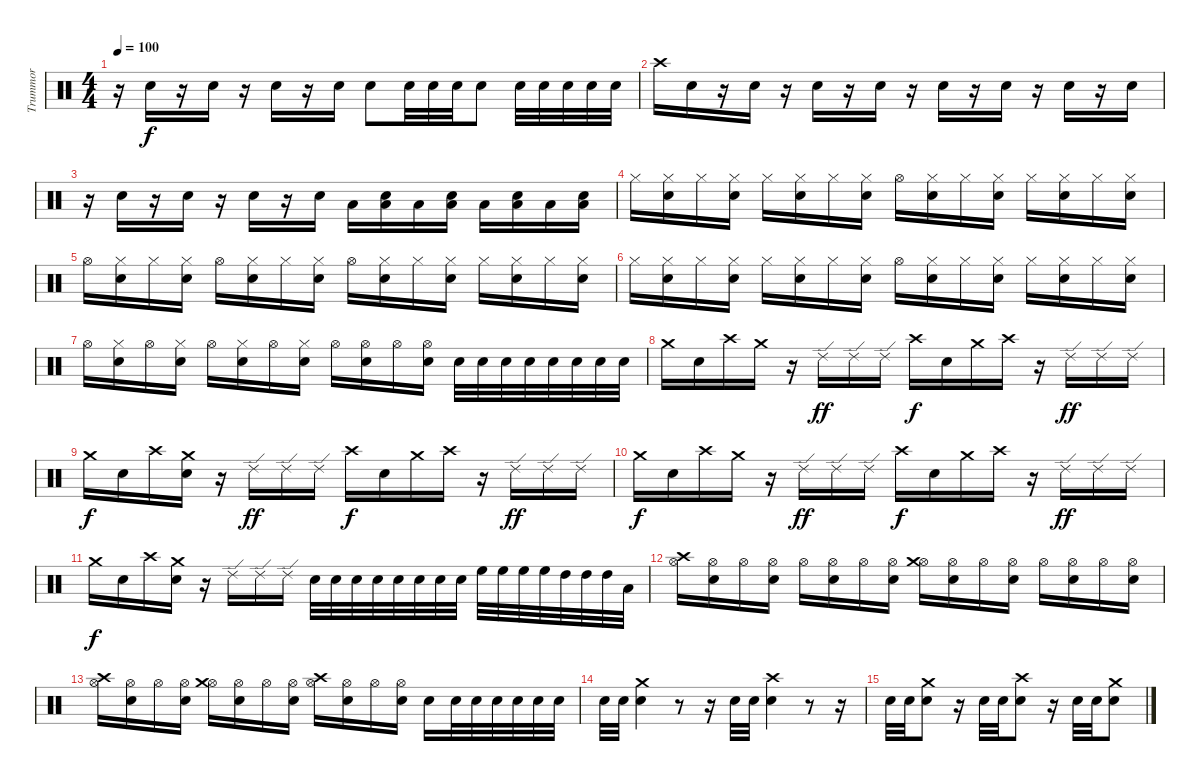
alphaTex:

\track ("Trummor" "Trummor") {instrument percussion}
\staff {score}
\articulation defaults
\ts (4 4)
\tempo 100
\clef neutral
\ks c
r.16{dy f} "Electric Snare (hit)".16 r.16 "Electric Snare (hit)".16 r.16 "Electric Snare (hit)".16 r.16 "Electric Snare (hit)".16 "Electric Snare (hit)".8 "Electric Snare (hit)".32 "Electric Snare (hit)".32 "Electric Snare (hit)".32 "Electric Snare (hit)".8 "Electric Snare (hit)".32 "Electric Snare (hit)".32 "Electric Snare (hit)".32 "Electric Snare (hit)".32 "Electric Snare (hit)".32 |
"Crash high (hit)".16 "Electric Snare (hit)".16 r.16 "Electric Snare (hit)".16 r.16 "Electric Snare (hit)".16 r.16 "Electric Snare (hit)".16 r.16 "Electric Snare (hit)".16 r.16 "Electric Snare (hit)".16 r.16 "Electric Snare (hit)".16 r.16 "Electric Snare (hit)".16 |
r.16 "Electric Snare (hit)".16 r.16 "Electric Snare (hit)".16 r.16 "Electric Snare (hit)".16 r.16 "Electric Snare (hit)".16 "Low Tom (hit)".16 ("Low Tom (hit)" "Electric Snare (hit)").16 "Low Tom (hit)".16 ("Low Tom (hit)" "Electric Snare (hit)").16 "Low Tom (hit)".16 ("Low Tom (hit)" "Electric Snare (hit)").16 "Low Tom (hit)".16 ("Low Tom (hit)" "Electric Snare (hit)").16 |
"Hi-Hat (closed)".16 ("Hi-Hat (closed)" "Electric Snare (hit)").16 "Hi-Hat (closed)".16 ("Hi-Hat (closed)" "Electric Snare (hit)").16 "Hi-Hat (closed)".16 ("Hi-Hat (closed)" "Electric Snare (hit)").16 "Hi-Hat (closed)".16 ("Hi-Hat (closed)" "Electric Snare (hit)").16 "Hi-Hat (open)".16 ("Hi-Hat (closed)" "Electric Snare (hit)").16 "Hi-Hat (closed)".16 ("Hi-Hat (closed)" "Electric Snare (hit)").16 "Hi-Hat (closed)".16 ("Hi-Hat (closed)" "Electric Snare (hit)").16 "Hi-Hat (closed)".16 ("Hi-Hat (closed)" "Electric Snare (hit)").16 |
"Hi-Hat (open)".16 ("Hi-Hat (closed)" "Electric Snare (hit)").16 "Hi-Hat (closed)".16 ("Hi-Hat (closed)" "Electric Snare (hit)").16 "Hi-Hat (open)".16 ("Hi-Hat (closed)" "Electric Snare (hit)").16 "Hi-Hat (closed)".16 ("Hi-Hat (closed)" "Electric Snare (hit)").16 "Hi-Hat (open)".16 ("Hi-Hat (closed)" "Electric Snare (hit)").16 "Hi-Hat (closed)".16 ("Hi-Hat (closed)" "Electric Snare (hit)").16 "Hi-Hat (closed)".16 ("Hi-Hat (closed)" "Electric Snare (hit)").16 "Hi-Hat (closed)".16 ("Hi-Hat (closed)" "Electric Snare (hit)").16 |
"Hi-Hat (closed)".16 ("Hi-Hat (closed)" "Electric Snare (hit)").16 "Hi-Hat (closed)".16 ("Hi-Hat (closed)" "Electric Snare (hit)").16 "Hi-Hat (closed)".16 ("Hi-Hat (closed)" "Electric Snare (hit)").16 "Hi-Hat (closed)".16 ("Hi-Hat (closed)" "Electric Snare (hit)").16 "Hi-Hat (open)".16 ("Hi-Hat (closed)" "Electric Snare (hit)").16 "Hi-Hat (closed)".16 ("Hi-Hat (closed)" "Electric Snare (hit)").16 "Hi-Hat (closed)".16 ("Hi-Hat (closed)" "Electric Snare (hit)").16 "Hi-Hat (closed)".16 ("Hi-Hat (closed)" "Electric Snare (hit)").16 |
"Hi-Hat (open)".16 ("Hi-Hat (closed)" "Electric Snare (hit)").16 "Hi-Hat (open)".16 ("Hi-Hat (closed)" "Electric Snare (hit)").16 "Hi-Hat (open)".16 ("Hi-Hat (closed)" "Electric Snare (hit)").16 "Hi-Hat (open)".16 ("Hi-Hat (closed)" "Electric Snare (hit)").16 "Hi-Hat (open)".16 ("Hi-Hat (open)" "Electric Snare (hit)").16 "Hi-Hat (open)".16 ("Hi-Hat (open)" "Electric Snare (hit)").16 "Electric Snare (hit)".32 "Electric Snare (hit)".32 "Electric Snare (hit)".32 "Electric Snare (hit)".32 "Electric Snare (hit)".32 "Electric Snare (hit)".32 "Electric Snare (hit)".32 "Electric Snare (hit)".32 |
"Crash medium (hit)".16 "Electric Snare (hit)".16 "Crash high (hit)".16 "Crash medium (hit)".16 r.16 "Ride (edge) 2".16{dy ff} "Ride (edge) 2".16 "Ride (edge) 2".16 "Crash high (hit)".16{dy f} "Electric Snare (hit)".16 "Crash medium (hit)".16 "Crash high (hit)".16 r.16 "Ride (edge) 2".16{dy ff} "Ride (edge) 2".16 "Ride (edge) 2".16 |
"Crash medium (hit)".16{dy f} "Electric Snare (hit)".16 "Crash high (hit)".16 ("Electric Snare (hit)" "Crash medium (hit)").16 r.16 "Ride (edge) 2".16{dy ff} "Ride (edge) 2".16 "Ride (edge) 2".16 "Crash high (hit)".16{dy f} "Electric Snare (hit)".16 "Crash medium (hit)".16 "Crash high (hit)".16 r.16 "Ride (edge) 2".16{dy ff} "Ride (edge) 2".16 "Ride (edge) 2".16 |
"Crash medium (hit)".16{dy f} "Electric Snare (hit)".16 "Crash high (hit)".16 "Crash medium (hit)".16 r.16 "Ride (edge) 2".16{dy ff} "Ride (edge) 2".16 "Ride (edge) 2".16 "Crash high (hit)".16{dy f} "Electric Snare (hit)".16 "Crash medium (hit)".16 "Crash high (hit)".16 r.16 "Ride (edge) 2".16{dy ff} "Ride (edge) 2".16 "Ride (edge) 2".16 |
"Crash medium (hit)".16{dy f} "Electric Snare (hit)".16 "Crash high (hit)".16 ("Electric Snare (hit)" "Crash medium (hit)").16 r.16 "Ride (edge) 2".16 "Ride (edge) 2".16 "Ride (edge) 2".16 "Electric Snare (hit)".32 "Electric Snare (hit)".32 "Electric Snare (hit)".32 "Electric Snare (hit)".32 "Electric Snare (hit)".32 "Electric Snare (hit)".32 "Electric Snare (hit)".32 "Electric Snare (hit)".32 "High Floor Tom (hit)".32 "High Floor Tom (hit)".32 "High Floor Tom (hit)".32 "High Floor Tom (hit)".32 "High Tom (hit)".32 "High Tom (hit)".32 "High Tom (hit)".32 "Low Tom (hit)".32 |
("Hi-Hat (open)" "Crash high (hit)").16 ("Hi-Hat (open)" "Electric Snare (hit)").16 "Hi-Hat (open)".16 ("Hi-Hat (open)" "Electric Snare (hit)").16 "Hi-Hat (open)".16 ("Hi-Hat (open)" "Electric Snare (hit)").16 "Hi-Hat (open)".16 ("Hi-Hat (open)" "Electric Snare (hit)").16 ("Hi-Hat (open)" "Crash medium (hit)").16 ("Hi-Hat (open)" "Electric Snare (hit)").16 "Hi-Hat (open)".16 ("Hi-Hat (open)" "Electric Snare (hit)").16 "Hi-Hat (open)".16 ("Hi-Hat (open)" "Electric Snare (hit)").16 "Hi-Hat (open)".16 ("Hi-Hat (open)" "Electric Snare (hit)").16 |
("Hi-Hat (open)" "Crash high (hit)").16 ("Hi-Hat (open)" "Electric Snare (hit)").16 "Hi-Hat (open)".16 ("Hi-Hat (open)" "Electric Snare (hit)").16 ("Hi-Hat (open)" "Crash medium (hit)").16 ("Hi-Hat (open)" "Electric Snare (hit)").16 "Hi-Hat (open)".16 ("Hi-Hat (open)" "Electric Snare (hit)").16 ("Hi-Hat (open)" "Crash high (hit)").16 ("Hi-Hat (open)" "Electric Snare (hit)").16 "Hi-Hat (open)".16 ("Hi-Hat (open)" "Electric Snare (hit)").16 "Electric Snare (hit)".16 "Electric Snare (hit)".32 "Electric Snare (hit)".32 "Electric Snare (hit)".32 "Electric Snare (hit)".32 "Electric Snare (hit)".32 "Electric Snare (hit)".32 |
"Electric Snare (hit)".32 "Electric Snare (hit)".32 ("Crash medium (hit)" "Electric Snare (hit)").4 r.8 r.16 "Electric Snare (hit)".32 "Electric Snare (hit)".32 ("Crash high (hit)" "Electric Snare (hit)").4 r.8 r.16 |
"Electric Snare (hit)".32 "Electric Snare (hit)".32 ("Crash medium (hit)" "Electric Snare (hit)").8 r.16 "Electric Snare (hit)".32 "Electric Snare (hit)".32 ("Crash high (hit)" "Electric Snare (hit)").8 r.16 "Electric Snare (hit)".32 "Electric Snare (hit)".32 ("Crash medium (hit)" "Electric Snare (hit)").8
